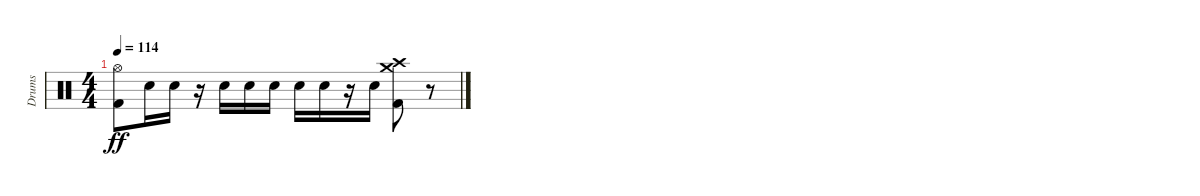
\track ("Drums               " "Drums     ") {instrument percussion}
\staff {score}
\articulation defaults
\ts (4 4)
\tempo 114
\clef neutral
\ks c
("Hi-Hat (open)" "Kick (hit) 2").8{dy ff} "Electric Snare (hit)".16 "Electric Snare (hit)".16 r.16 "Electric Snare (hit)".16 "Electric Snare (hit)".16 "Electric Snare (hit)".16 "Electric Snare (hit)".16 "Electric Snare (hit)".16 r.16 "Electric Snare (hit)".16 ("Crash medium (hit)" "Crash high (hit)" "Kick (hit) 2").8 r.8
